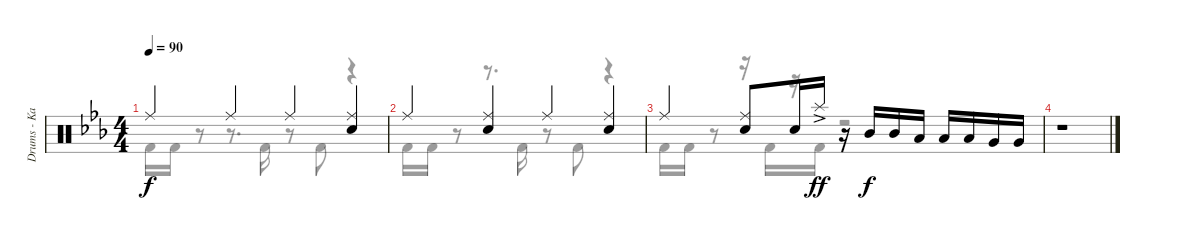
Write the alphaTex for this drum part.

\track ("Drums - Kai" "Drums - Ka") {instrument percussion}
\staff {score}
\articulation defaults
\voice
\ts (4 4)
\tempo 90
\clef neutral
\ks eb "Ride (middle)".4{dy f} "Ride (middle)".4 "Ride (middle)".4
("Ride (middle)" "Snare (hit) 2").4 |
"Ride (middle)".4 ("Ride (middle)" "Snare (hit) 2").4 "Ride (middle)".4 ("Ride (middle)" "Snare (hit) 2").4 |
"Ride (middle)".4 ("Ride (middle)" "Snare (hit) 2").8 "Snare (hit) 2".16 "Splash (hit)"{ac}.16{dy ff} r.16 "Mid Tom (hit)".16{dy f} "Mid Tom (hit)".16 "Low Tom (hit)".16 "Low Tom (hit)".16 "Low Tom (hit)".16 "Very Low Tom (hit)".16 "Very Low Tom (hit)".16 |
r.1
\voice
\clef neutral
\ottava regular
\simile none
\ks eb "Kick (hit) 2".16{dy f} "Kick (hit) 2".16
r.8 r.8{d} "Kick (hit) 2".16 r.8 "Kick (hit) 2".8 r.4 |
"Kick (hit) 2".16 "Kick (hit) 2".16 r.8 r.8{d} "Kick (hit) 2".16 r.8 "Kick (hit) 2".8 r.4 |
"Kick (hit) 2".16 "Kick (hit) 2".16 r.8 r.16 "Kick (hit) 2".16 r.16 "Kick (hit) 2".16 r.2 |
